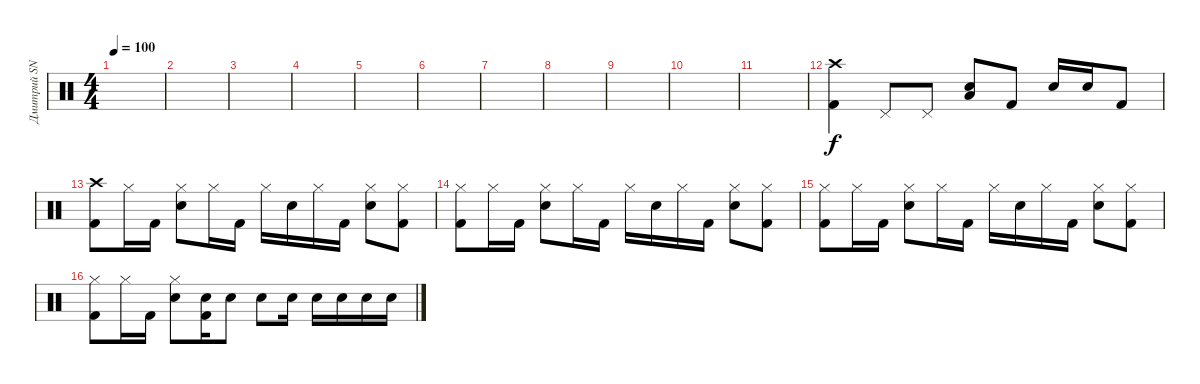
\track ("Дмитрий SNAKE Хакимов" "Дмитрий SN") {instrument percussion}
\staff {score}
\articulation defaults
\ts (4 4)
\tempo 100
\clef neutral
\ks c
|
|
|
|
|
|
|
|
|
|
|
("Crash high (hit)" "Kick (hit) 2").4 "Pedal Hi-Hat (hit)".8 "Pedal Hi-Hat (hit)".8 ("Snare (hit) 2" "Low Tom (hit)").8 "Kick (hit) 2".8 "Snare (hit) 2".16 "Snare (hit) 2".16 "Kick (hit) 2".8 |
("Crash high (hit)" "Kick (hit) 2").8 "Hi-Hat (closed)".16 "Kick (hit) 2".16 ("Hi-Hat (closed)" "Snare (hit) 2").8 "Hi-Hat (closed)".16 "Kick (hit) 2".16 "Hi-Hat (closed)".16 "Snare (hit) 2".16 "Hi-Hat (closed)".16 "Kick (hit) 2".16 ("Hi-Hat (closed)" "Snare (hit) 2").8 ("Hi-Hat (closed)" "Kick (hit) 2").8 |
("Hi-Hat (closed)" "Kick (hit) 2").8 "Hi-Hat (closed)".16 "Kick (hit) 2".16 ("Hi-Hat (closed)" "Snare (hit) 2").8 "Hi-Hat (closed)".16 "Kick (hit) 2".16 "Hi-Hat (closed)".16 "Snare (hit) 2".16 "Hi-Hat (closed)".16 "Kick (hit) 2".16 ("Hi-Hat (closed)" "Snare (hit) 2").8 ("Hi-Hat (closed)" "Kick (hit) 2").8 |
("Hi-Hat (closed)" "Kick (hit) 2").8 "Hi-Hat (closed)".16 "Kick (hit) 2".16 ("Hi-Hat (closed)" "Snare (hit) 2").8 "Hi-Hat (closed)".16 "Kick (hit) 2".16 "Hi-Hat (closed)".16 "Snare (hit) 2".16 "Hi-Hat (closed)".16 "Kick (hit) 2".16 ("Hi-Hat (closed)" "Snare (hit) 2").8 ("Hi-Hat (closed)" "Kick (hit) 2").8 |
("Hi-Hat (closed)" "Kick (hit) 2").8 "Hi-Hat (closed)".16 "Kick (hit) 2".16 ("Hi-Hat (closed)" "Snare (hit) 2").8 ("Snare (hit) 2" "Kick (hit) 2").16 "Snare (hit) 2".8 "Snare (hit) 2".8 "Snare (hit) 2".16 "Snare (hit) 2".16 "Snare (hit) 2".16 "Snare (hit) 2".16 "Snare (hit) 2".16
